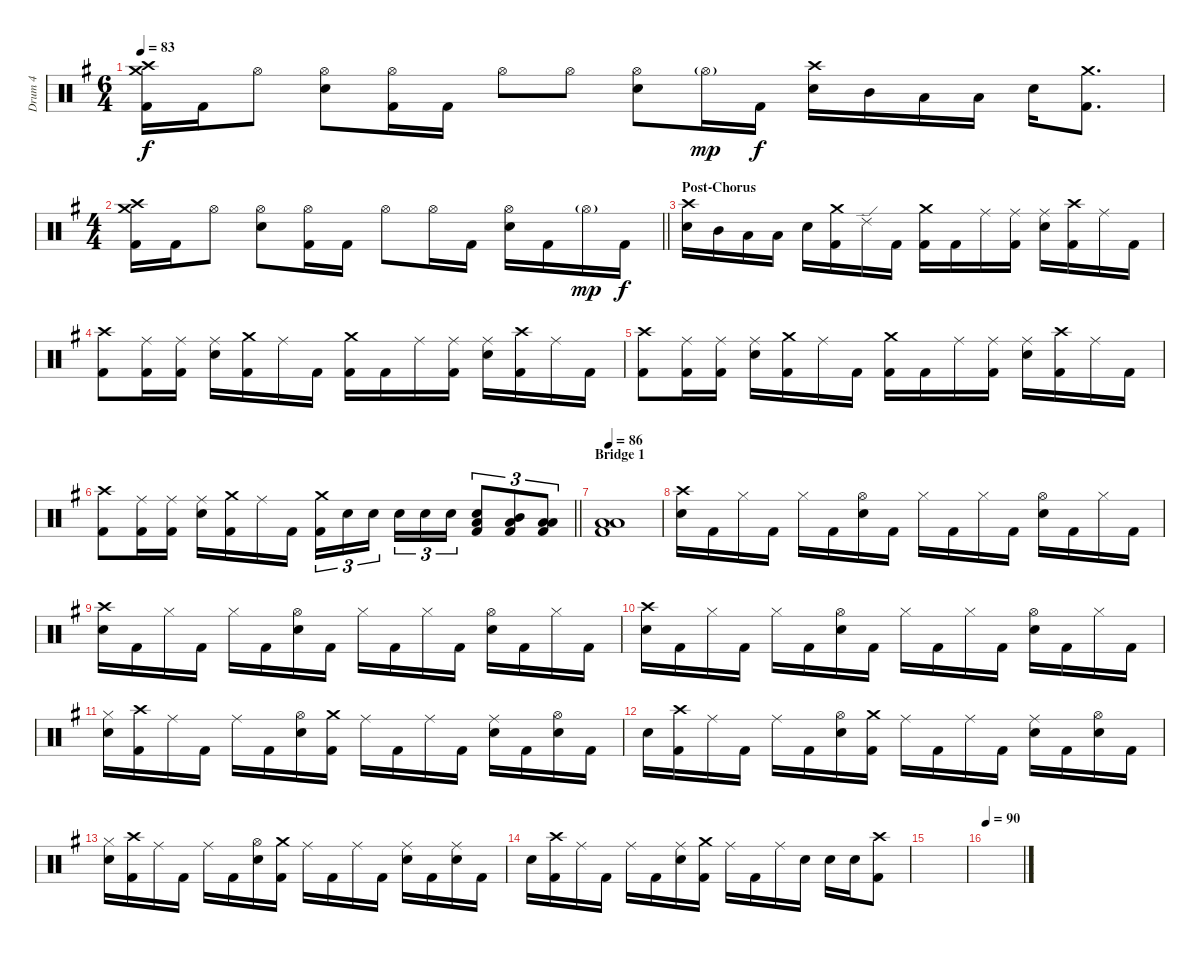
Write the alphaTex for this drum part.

\track ("Drum 4" "Drum 4") {instrument percussion}
\staff {score}
\articulation defaults
\ts (6 4)
\tempo 83
\clef neutral
\ks eminor
("Crash high (hit)" "Crash medium (hit)" "Kick (hit) 2").16{dy f} "Kick (hit) 2".16 "Hi-Hat (open)".8 ("Hi-Hat (open)" "Snare (hit) 2").8 ("Hi-Hat (open)" "Kick (hit) 2").16 "Kick (hit) 2".16 "Hi-Hat (open)".8 "Hi-Hat (open)".8 ("Hi-Hat (open)" "Snare (hit) 2").8 "Hi-Hat (open)"{g}.16{dy mp} "Kick (hit) 2".16{dy f} ("Crash high (hit)" "Snare (hit) 2").16 "Mid Tom (hit)".16 "Low Tom (hit)".16 "Low Floor Tom (hit)".16 "Snare (hit) 2".16 ("Crash medium (hit)" "Kick (hit) 2").8{d} |
\ts (4 4)
\barLineRight lightlight
("Crash high (hit)" "Crash medium (hit)" "Kick (hit) 2").16 "Kick (hit) 2".16 "Hi-Hat (open)".8 ("Hi-Hat (open)" "Snare (hit) 2").8 ("Hi-Hat (open)" "Kick (hit) 2").16 "Kick (hit) 2".16 "Hi-Hat (open)".8 "Hi-Hat (open)".16 "Kick (hit) 2".16 ("Hi-Hat (open)" "Snare (hit) 2").16 "Kick (hit) 2".16 "Hi-Hat (open)"{g}.16{dy mp} "Kick (hit) 2".16{dy f} |
\section ("" "Post-Chorus")
("Crash high (hit)" "Snare (hit) 2").16 "Mid Tom (hit)".16 "Low Tom (hit)".16 "Low Floor Tom (hit)".16 "Snare (hit) 2".16 ("Crash medium (hit)" "Kick (hit) 2").16 "Ride (edge) 2".16 "Kick (hit) 2".16 ("Crash medium (hit)" "Kick (hit) 2").16 "Kick (hit) 2".16 "Ride (middle)".16 ("Ride (middle)" "Kick (hit) 2").16 ("Ride (middle)" "Snare (hit) 2").16 ("Crash high (hit)" "Kick (hit) 2").16 "Ride (middle)".16 "Kick (hit) 2".16 |
("Crash high (hit)" "Kick (hit) 2").8 ("Ride (middle)" "Kick (hit) 2").16 ("Ride (middle)" "Kick (hit) 2").16 ("Ride (middle)" "Snare (hit) 2").16 ("Crash medium (hit)" "Kick (hit) 2").16 "Ride (middle)".16 "Kick (hit) 2".16 ("Crash medium (hit)" "Kick (hit) 2").16 "Kick (hit) 2".16 "Ride (middle)".16 ("Ride (middle)" "Kick (hit) 2").16 ("Ride (middle)" "Snare (hit) 2").16 ("Crash high (hit)" "Kick (hit) 2").16 "Ride (middle)".16 "Kick (hit) 2".16 |
("Crash high (hit)" "Kick (hit) 2").8 ("Ride (middle)" "Kick (hit) 2").16 ("Ride (middle)" "Kick (hit) 2").16 ("Ride (middle)" "Snare (hit) 2").16 ("Crash medium (hit)" "Kick (hit) 2").16 "Ride (middle)".16 "Kick (hit) 2".16 ("Crash medium (hit)" "Kick (hit) 2").16 "Kick (hit) 2".16 "Ride (middle)".16 ("Ride (middle)" "Kick (hit) 2").16 ("Ride (middle)" "Snare (hit) 2").16 ("Crash high (hit)" "Kick (hit) 2").16 "Ride (middle)".16 "Kick (hit) 2".16 |
\barLineRight lightlight
("Crash high (hit)" "Kick (hit) 2").8 ("Ride (middle)" "Kick (hit) 2").16 ("Ride (middle)" "Kick (hit) 2").16 ("Ride (middle)" "Snare (hit) 2").16 ("Crash medium (hit)" "Kick (hit) 2").16 "Ride (middle)".16 "Kick (hit) 2".16 ("Crash medium (hit)" "Kick (hit) 2").16{tu (3 2)} "Snare (hit) 2".16{tu (3 2)} "Snare (hit) 2".16{tu (3 2) beam splitsecondary} "Snare (hit) 2".16{tu (3 2)} "Snare (hit) 2".16{tu (3 2)} "Snare (hit) 2".16{tu (3 2)} ("Snare (hit) 2" "Low Floor Tom (hit)" "Kick (hit) 2").8{tu (3 2)} ("Mid Tom (hit)" "Low Tom (hit)" "Kick (hit) 2").8{tu (3 2)} ("Low Tom (hit)" "Low Floor Tom (hit)" "Kick (hit) 2").8{tu (3 2)} |
\section ("" "Bridge 1")
\tempo 86
("Low Floor Tom (hit)" "Low Floor Tom (hit)" "Kick (hit) 2").1 |
("Crash high (hit)" "Snare (hit) 2").16 "Kick (hit) 2".16 "Hi-Hat (closed)".16 "Kick (hit) 2".16 "Hi-Hat (closed)".16 "Kick (hit) 2".16 ("Hi-Hat (open)" "Snare (hit) 2").16 "Kick (hit) 2".16 "Hi-Hat (closed)".16 "Kick (hit) 2".16 "Hi-Hat (closed)".16 "Kick (hit) 2".16 ("Hi-Hat (open)" "Snare (hit) 2").16 "Kick (hit) 2".16 "Hi-Hat (closed)".16 "Kick (hit) 2".16 |
("Crash high (hit)" "Snare (hit) 2").16 "Kick (hit) 2".16 "Hi-Hat (closed)".16 "Kick (hit) 2".16 "Hi-Hat (closed)".16 "Kick (hit) 2".16 ("Hi-Hat (open)" "Snare (hit) 2").16 "Kick (hit) 2".16 "Hi-Hat (closed)".16 "Kick (hit) 2".16 "Hi-Hat (closed)".16 "Kick (hit) 2".16 ("Hi-Hat (open)" "Snare (hit) 2").16 "Kick (hit) 2".16 "Hi-Hat (closed)".16 "Kick (hit) 2".16 |
("Crash high (hit)" "Snare (hit) 2").16 "Kick (hit) 2".16 "Hi-Hat (closed)".16 "Kick (hit) 2".16 "Hi-Hat (closed)".16 "Kick (hit) 2".16 ("Hi-Hat (open)" "Snare (hit) 2").16 "Kick (hit) 2".16 "Hi-Hat (closed)".16 "Kick (hit) 2".16 "Hi-Hat (closed)".16 "Kick (hit) 2".16 ("Hi-Hat (open)" "Snare (hit) 2").16 "Kick (hit) 2".16 "Hi-Hat (closed)".16 "Kick (hit) 2".16 |
("Hi-Hat (closed)" "Snare (hit) 2").16 ("Crash high (hit)" "Kick (hit) 2").16 "Ride (middle)".16 "Kick (hit) 2".16 "Ride (middle)".16 "Kick (hit) 2".16 ("Hi-Hat (open)" "Snare (hit) 2").16 ("Crash medium (hit)" "Kick (hit) 2").16 "Ride (middle)".16 "Kick (hit) 2".16 "Ride (middle)".16 "Kick (hit) 2".16 ("Ride (middle)" "Snare (hit) 2").16 "Kick (hit) 2".16 ("Hi-Hat (open)" "Snare (hit) 2").16 "Kick (hit) 2".16 |
"Snare (hit) 2".16 ("Crash high (hit)" "Kick (hit) 2").16 "Ride (middle)".16 "Kick (hit) 2".16 "Ride (middle)".16 "Kick (hit) 2".16 ("Hi-Hat (open)" "Snare (hit) 2").16 ("Crash medium (hit)" "Kick (hit) 2").16 "Ride (middle)".16 "Kick (hit) 2".16 "Ride (middle)".16 "Kick (hit) 2".16 ("Ride (middle)" "Snare (hit) 2").16 "Kick (hit) 2".16 ("Hi-Hat (open)" "Snare (hit) 2").16 "Kick (hit) 2".16 |
("Hi-Hat (closed)" "Snare (hit) 2").16 ("Crash high (hit)" "Kick (hit) 2").16 "Ride (middle)".16 "Kick (hit) 2".16 "Ride (middle)".16 "Kick (hit) 2".16 ("Hi-Hat (open)" "Snare (hit) 2").16 ("Crash medium (hit)" "Kick (hit) 2").16 "Ride (middle)".16 "Kick (hit) 2".16 "Ride (middle)".16 "Kick (hit) 2".16 ("Ride (middle)" "Snare (hit) 2").16 "Kick (hit) 2".16 ("Ride (middle)" "Snare (hit) 2").16 "Kick (hit) 2".16 |
"Snare (hit) 2".16 ("Crash high (hit)" "Kick (hit) 2").16 "Ride (middle)".16 "Kick (hit) 2".16 "Ride (middle)".16 "Kick (hit) 2".16 ("Ride (middle)" "Snare (hit) 2").16 ("Crash medium (hit)" "Kick (hit) 2").16 "Ride (middle)".16 "Kick (hit) 2".16 "Ride (middle)".16 "Snare (hit) 2".16 "Snare (hit) 2".16 "Snare (hit) 2".16 ("Crash high (hit)" "Kick (hit) 2").8 |
|
\tempo 90
